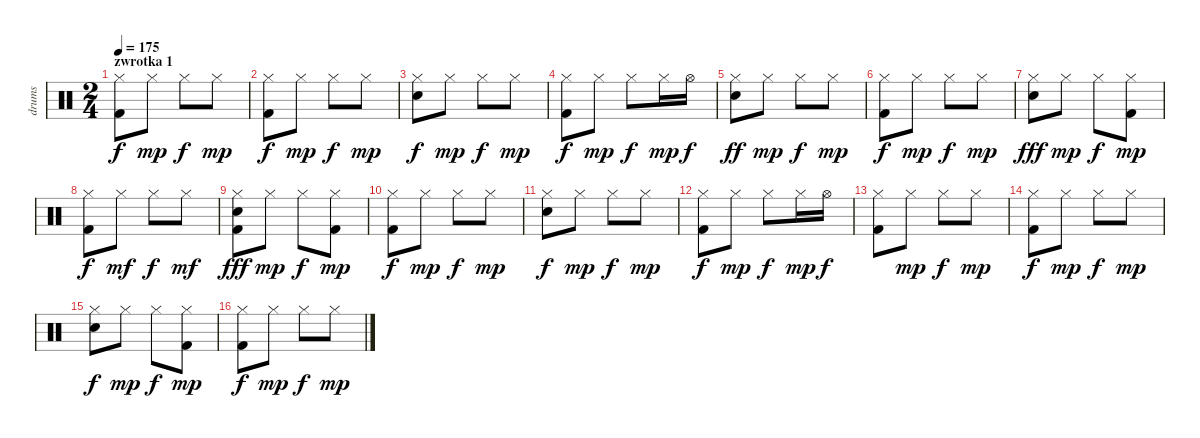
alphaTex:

\track ("drums" "drums") {instrument percussion}
\staff {score}
\articulation defaults
\ts (2 4)
\section ("" "zwrotka 1")
\tempo 175
\clef neutral
\ks c
("Hi-Hat (closed)" "Kick (hit) 2").8{dy f} "Hi-Hat (closed)".8{dy mp} "Hi-Hat (closed)".8{dy f} "Hi-Hat (closed)".8{dy mp} |
("Hi-Hat (closed)" "Kick (hit) 2").8{dy f} "Hi-Hat (closed)".8{dy mp} "Hi-Hat (closed)".8{dy f} "Hi-Hat (closed)".8{dy mp} |
("Hi-Hat (closed)" "Snare (hit) 2").8{dy f} "Hi-Hat (closed)".8{dy mp} "Hi-Hat (closed)".8{dy f} "Hi-Hat (closed)".8{dy mp} |
("Hi-Hat (closed)" "Kick (hit) 2").8{dy f} "Hi-Hat (closed)".8{dy mp} "Hi-Hat (closed)".8{dy f} "Hi-Hat (closed)".16{dy mp} "Hi-Hat (open)".16{dy f} |
("Hi-Hat (closed)" "Snare (hit) 2").8{dy ff} "Hi-Hat (closed)".8{dy mp} "Hi-Hat (closed)".8{dy f} "Hi-Hat (closed)".8{dy mp} |
("Hi-Hat (closed)" "Kick (hit) 2").8{dy f} "Hi-Hat (closed)".8{dy mp} "Hi-Hat (closed)".8{dy f} "Hi-Hat (closed)".8{dy mp} |
("Hi-Hat (closed)" "Snare (hit) 2").8{dy fff} "Hi-Hat (closed)".8{dy mp} "Hi-Hat (closed)".8{dy f} ("Hi-Hat (closed)" "Kick (hit) 2").8{dy mp} |
("Hi-Hat (closed)" "Kick (hit) 2").8{dy f} "Hi-Hat (closed)".8{dy mf} "Hi-Hat (closed)".8{dy f} "Hi-Hat (closed)".8{dy mf} |
("Hi-Hat (closed)" "Snare (hit) 2" "Kick (hit) 2").8{dy fff} "Hi-Hat (closed)".8{dy mp} "Hi-Hat (closed)".8{dy f} ("Hi-Hat (closed)" "Kick (hit) 2").8{dy mp} |
("Hi-Hat (closed)" "Kick (hit) 2").8{dy f} "Hi-Hat (closed)".8{dy mp} "Hi-Hat (closed)".8{dy f} "Hi-Hat (closed)".8{dy mp} |
("Hi-Hat (closed)" "Snare (hit) 2").8{dy f} "Hi-Hat (closed)".8{dy mp} "Hi-Hat (closed)".8{dy f} "Hi-Hat (closed)".8{dy mp} |
("Hi-Hat (closed)" "Kick (hit) 2").8{dy f} "Hi-Hat (closed)".8{dy mp} "Hi-Hat (closed)".8{dy f} "Hi-Hat (closed)".16{dy mp} "Hi-Hat (open)".16{dy f} |
("Hi-Hat (closed)" "Kick (hit) 2").8 "Hi-Hat (closed)".8{dy mp} "Hi-Hat (closed)".8{dy f} "Hi-Hat (closed)".8{dy mp} |
("Hi-Hat (closed)" "Kick (hit) 2").8{dy f} "Hi-Hat (closed)".8{dy mp} "Hi-Hat (closed)".8{dy f} "Hi-Hat (closed)".8{dy mp} |
("Hi-Hat (closed)" "Snare (hit) 2").8{dy f} "Hi-Hat (closed)".8{dy mp} "Hi-Hat (closed)".8{dy f} ("Hi-Hat (closed)" "Kick (hit) 2").8{dy mp} |
("Hi-Hat (closed)" "Kick (hit) 2").8{dy f} "Hi-Hat (closed)".8{dy mp} "Hi-Hat (closed)".8{dy f} "Hi-Hat (closed)".8{dy mp}
